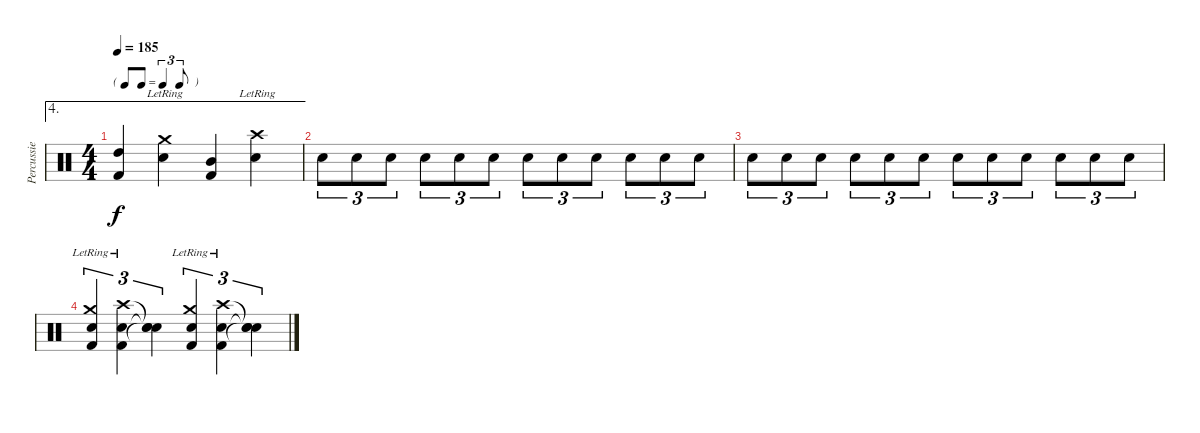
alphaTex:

\track ("Percussie" "Percussie") {instrument percussion}
\staff {score}
\articulation defaults
\ae 4
\ts (4 4)
\tf triplet8th
\tempo 185
\clef neutral
\ks c
("High Tom (hit)" "Kick (hit) 2").4{dy f} ("Crash medium (hit)"{lr} "Snare (hit) 2").4 ("Mid Tom (hit)" "Kick (hit) 2").4 ("Crash high (hit)"{lr} "Snare (hit) 2").4 |
"Snare (hit) 2".8{tu (3 2)} "Snare (hit) 2".8{tu (3 2)} "Snare (hit) 2".8{tu (3 2)} "Snare (hit) 2".8{tu (3 2)} "Snare (hit) 2".8{tu (3 2)} "Snare (hit) 2".8{tu (3 2)} "Snare (hit) 2".8{tu (3 2)} "Snare (hit) 2".8{tu (3 2)} "Snare (hit) 2".8{tu (3 2)} "Snare (hit) 2".8{tu (3 2)} "Snare (hit) 2".8{tu (3 2)} "Snare (hit) 2".8{tu (3 2)} |
"Snare (hit) 2".8{tu (3 2)} "Snare (hit) 2".8{tu (3 2)} "Snare (hit) 2".8{tu (3 2)} "Snare (hit) 2".8{tu (3 2)} "Snare (hit) 2".8{tu (3 2)} "Snare (hit) 2".8{tu (3 2)} "Snare (hit) 2".8{tu (3 2)} "Snare (hit) 2".8{tu (3 2)} "Snare (hit) 2".8{tu (3 2)} "Snare (hit) 2".8{tu (3 2)} "Snare (hit) 2".8{tu (3 2)} "Snare (hit) 2".8{tu (3 2)} |
("Crash medium (hit)"{lr} "Snare (hit) 2" "Kick (hit) 2").4{tu (3 2)} ("Crash high (hit)"{lr} "Snare (hit) 2" "Kick (hit) 2").4{tu (3 2)} ("Snare (hit)"{t} "Snare (hit)"{t} "Snare (hit)"{t}).4{tu (3 2)} ("Crash medium (hit)"{lr} "Snare (hit) 2" "Kick (hit) 2").4{tu (3 2)} ("Crash high (hit)"{lr} "Snare (hit) 2" "Kick (hit) 2").4{tu (3 2)} ("Snare (hit)"{t} "Snare (hit)"{t} "Snare (hit)"{t}).4{tu (3 2)}
